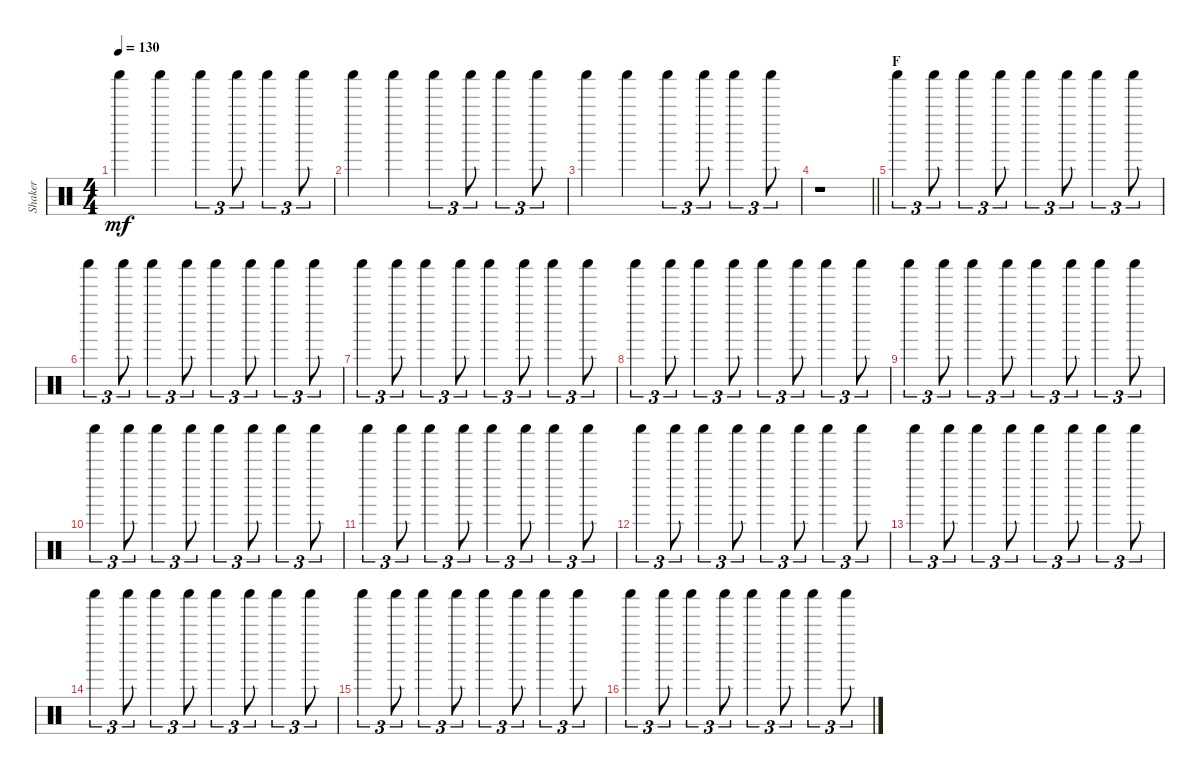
\track ("Shaker" "Shaker") {instrument percussion}
\staff {score}
\articulation defaults
\ts (4 4)
\tempo 130
\clef neutral
\ks c "Shaker (hit)".4{dy mf} "Shaker (hit)".4 "Shaker (hit)".4{tu (3 2)} "Shaker (hit)".8{tu (3 2)} "Shaker (hit)".4{tu (3 2)} "Shaker (hit)".8{tu (3 2)}
|
"Shaker (hit)".4 "Shaker (hit)".4 "Shaker (hit)".4{tu (3 2)} "Shaker (hit)".8{tu (3 2)} "Shaker (hit)".4{tu (3 2)} "Shaker (hit)".8{tu (3 2)} |
"Shaker (hit)".4 "Shaker (hit)".4 "Shaker (hit)".4{tu (3 2)} "Shaker (hit)".8{tu (3 2)} "Shaker (hit)".4{tu (3 2)} "Shaker (hit)".8{tu (3 2)} |
\barLineRight lightlight
r.1 |
\section ("" "F")
"Shaker (hit)".4{tu (3 2)} "Shaker (hit)".8{tu (3 2)} "Shaker (hit)".4{tu (3 2)} "Shaker (hit)".8{tu (3 2)} "Shaker (hit)".4{tu (3 2)} "Shaker (hit)".8{tu (3 2)} "Shaker (hit)".4{tu (3 2)} "Shaker (hit)".8{tu (3 2)} |
"Shaker (hit)".4{tu (3 2)} "Shaker (hit)".8{tu (3 2)} "Shaker (hit)".4{tu (3 2)} "Shaker (hit)".8{tu (3 2)} "Shaker (hit)".4{tu (3 2)} "Shaker (hit)".8{tu (3 2)} "Shaker (hit)".4{tu (3 2)} "Shaker (hit)".8{tu (3 2)} |
"Shaker (hit)".4{tu (3 2)} "Shaker (hit)".8{tu (3 2)} "Shaker (hit)".4{tu (3 2)} "Shaker (hit)".8{tu (3 2)} "Shaker (hit)".4{tu (3 2)} "Shaker (hit)".8{tu (3 2)} "Shaker (hit)".4{tu (3 2)} "Shaker (hit)".8{tu (3 2)} |
"Shaker (hit)".4{tu (3 2)} "Shaker (hit)".8{tu (3 2)} "Shaker (hit)".4{tu (3 2)} "Shaker (hit)".8{tu (3 2)} "Shaker (hit)".4{tu (3 2)} "Shaker (hit)".8{tu (3 2)} "Shaker (hit)".4{tu (3 2)} "Shaker (hit)".8{tu (3 2)} |
"Shaker (hit)".4{tu (3 2)} "Shaker (hit)".8{tu (3 2)} "Shaker (hit)".4{tu (3 2)} "Shaker (hit)".8{tu (3 2)} "Shaker (hit)".4{tu (3 2)} "Shaker (hit)".8{tu (3 2)} "Shaker (hit)".4{tu (3 2)} "Shaker (hit)".8{tu (3 2)} |
"Shaker (hit)".4{tu (3 2)} "Shaker (hit)".8{tu (3 2)} "Shaker (hit)".4{tu (3 2)} "Shaker (hit)".8{tu (3 2)} "Shaker (hit)".4{tu (3 2)} "Shaker (hit)".8{tu (3 2)} "Shaker (hit)".4{tu (3 2)} "Shaker (hit)".8{tu (3 2)} |
"Shaker (hit)".4{tu (3 2)} "Shaker (hit)".8{tu (3 2)} "Shaker (hit)".4{tu (3 2)} "Shaker (hit)".8{tu (3 2)} "Shaker (hit)".4{tu (3 2)} "Shaker (hit)".8{tu (3 2)} "Shaker (hit)".4{tu (3 2)} "Shaker (hit)".8{tu (3 2)} |
"Shaker (hit)".4{tu (3 2)} "Shaker (hit)".8{tu (3 2)} "Shaker (hit)".4{tu (3 2)} "Shaker (hit)".8{tu (3 2)} "Shaker (hit)".4{tu (3 2)} "Shaker (hit)".8{tu (3 2)} "Shaker (hit)".4{tu (3 2)} "Shaker (hit)".8{tu (3 2)} |
"Shaker (hit)".4{tu (3 2)} "Shaker (hit)".8{tu (3 2)} "Shaker (hit)".4{tu (3 2)} "Shaker (hit)".8{tu (3 2)} "Shaker (hit)".4{tu (3 2)} "Shaker (hit)".8{tu (3 2)} "Shaker (hit)".4{tu (3 2)} "Shaker (hit)".8{tu (3 2)} |
"Shaker (hit)".4{tu (3 2)} "Shaker (hit)".8{tu (3 2)} "Shaker (hit)".4{tu (3 2)} "Shaker (hit)".8{tu (3 2)} "Shaker (hit)".4{tu (3 2)} "Shaker (hit)".8{tu (3 2)} "Shaker (hit)".4{tu (3 2)} "Shaker (hit)".8{tu (3 2)} |
"Shaker (hit)".4{tu (3 2)} "Shaker (hit)".8{tu (3 2)} "Shaker (hit)".4{tu (3 2)} "Shaker (hit)".8{tu (3 2)} "Shaker (hit)".4{tu (3 2)} "Shaker (hit)".8{tu (3 2)} "Shaker (hit)".4{tu (3 2)} "Shaker (hit)".8{tu (3 2)} |
"Shaker (hit)".4{tu (3 2)} "Shaker (hit)".8{tu (3 2)} "Shaker (hit)".4{tu (3 2)} "Shaker (hit)".8{tu (3 2)} "Shaker (hit)".4{tu (3 2)} "Shaker (hit)".8{tu (3 2)} "Shaker (hit)".4{tu (3 2)} "Shaker (hit)".8{tu (3 2)}
